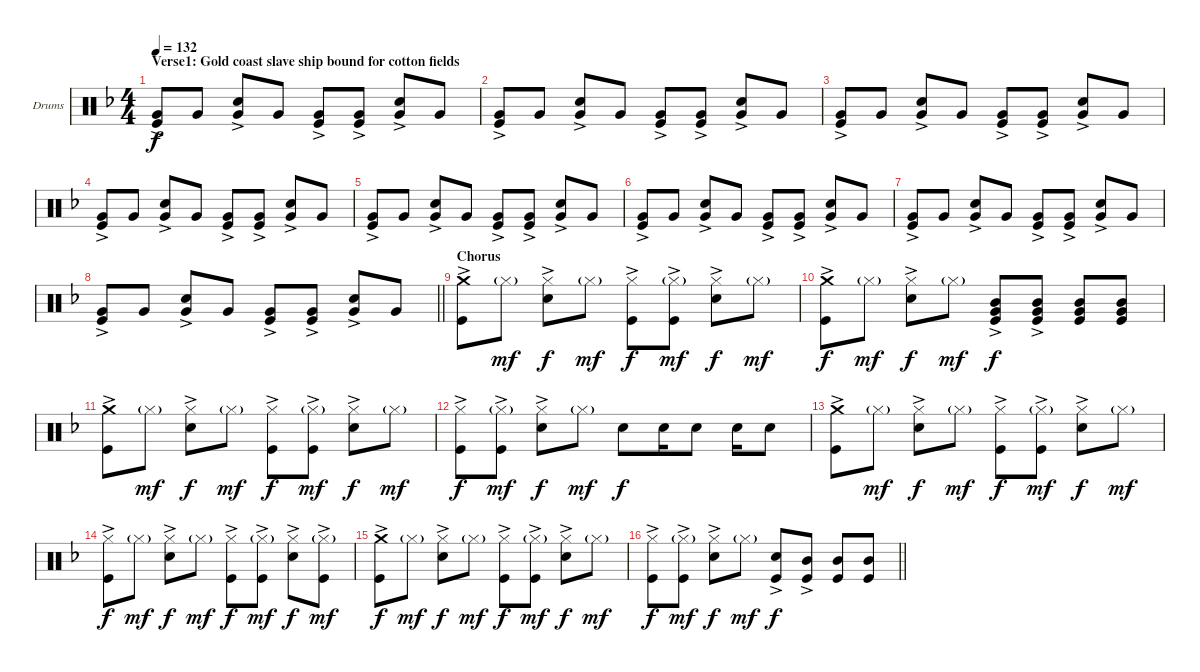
\bracketExtendMode groupsimilarinstruments
\firstSystemTrackNameOrientation horizontal
\otherSystemsTrackNameOrientation horizontal
\track ("Drumkit" "Drums") {instrument percussion}
\staff {score}
\articulation defaults
\ts (4 4)
\section ("" "Verse1: Gold coast slave ship bound for cotton fields")
\tempo 132
\clef neutral
\ks f
("Very Low Tom (hit)"{ac} "Kick (hit)"{ac}).8{dy f} "Very Low Tom (hit)".8 ("Snare (hit) 2"{ac} "Very Low Tom (hit)"{ac}).8 "Very Low Tom (hit)".8 ("Very Low Tom (hit)"{ac} "Kick (hit)"{ac}).8 ("Very Low Tom (hit)" "Kick (hit)"{ac}).8 ("Snare (hit) 2"{ac} "Very Low Tom (hit)"{ac}).8 "Very Low Tom (hit)".8 |
("Very Low Tom (hit)"{ac} "Kick (hit)"{ac}).8 "Very Low Tom (hit)".8 ("Snare (hit) 2"{ac} "Very Low Tom (hit)"{ac}).8 "Very Low Tom (hit)".8 ("Very Low Tom (hit)"{ac} "Kick (hit)"{ac}).8 ("Very Low Tom (hit)" "Kick (hit)"{ac}).8 ("Snare (hit) 2"{ac} "Very Low Tom (hit)"{ac}).8 "Very Low Tom (hit)".8 |
("Very Low Tom (hit)"{ac} "Kick (hit)"{ac}).8 "Very Low Tom (hit)".8 ("Snare (hit) 2"{ac} "Very Low Tom (hit)"{ac}).8 "Very Low Tom (hit)".8 ("Very Low Tom (hit)"{ac} "Kick (hit)"{ac}).8 ("Very Low Tom (hit)" "Kick (hit)"{ac}).8 ("Snare (hit) 2"{ac} "Very Low Tom (hit)"{ac}).8 "Very Low Tom (hit)".8 |
("Very Low Tom (hit)"{ac} "Kick (hit)"{ac}).8 "Very Low Tom (hit)".8 ("Snare (hit) 2"{ac} "Very Low Tom (hit)"{ac}).8 "Very Low Tom (hit)".8 ("Very Low Tom (hit)"{ac} "Kick (hit)"{ac}).8 ("Very Low Tom (hit)" "Kick (hit)"{ac}).8 ("Snare (hit) 2"{ac} "Very Low Tom (hit)"{ac}).8 "Very Low Tom (hit)".8 |
("Very Low Tom (hit)"{ac} "Kick (hit)"{ac}).8 "Very Low Tom (hit)".8 ("Snare (hit) 2"{ac} "Very Low Tom (hit)"{ac}).8 "Very Low Tom (hit)".8 ("Very Low Tom (hit)"{ac} "Kick (hit)"{ac}).8 ("Very Low Tom (hit)" "Kick (hit)"{ac}).8 ("Snare (hit) 2"{ac} "Very Low Tom (hit)"{ac}).8 "Very Low Tom (hit)".8 |
("Very Low Tom (hit)"{ac} "Kick (hit)"{ac}).8 "Very Low Tom (hit)".8 ("Snare (hit) 2"{ac} "Very Low Tom (hit)"{ac}).8 "Very Low Tom (hit)".8 ("Very Low Tom (hit)"{ac} "Kick (hit)"{ac}).8 ("Very Low Tom (hit)" "Kick (hit)"{ac}).8 ("Snare (hit) 2"{ac} "Very Low Tom (hit)"{ac}).8 "Very Low Tom (hit)".8 |
("Very Low Tom (hit)"{ac} "Kick (hit)"{ac}).8 "Very Low Tom (hit)".8 ("Snare (hit) 2"{ac} "Very Low Tom (hit)"{ac}).8 "Very Low Tom (hit)".8 ("Very Low Tom (hit)"{ac} "Kick (hit)"{ac}).8 ("Very Low Tom (hit)" "Kick (hit)"{ac}).8 ("Snare (hit) 2"{ac} "Very Low Tom (hit)"{ac}).8 "Very Low Tom (hit)".8 |
\barLineRight lightlight
("Very Low Tom (hit)"{ac} "Kick (hit)"{ac}).8 "Very Low Tom (hit)".8 ("Snare (hit) 2"{ac} "Very Low Tom (hit)"{ac}).8 "Very Low Tom (hit)".8 ("Very Low Tom (hit)"{ac} "Kick (hit)"{ac}).8 ("Very Low Tom (hit)" "Kick (hit)"{ac}).8 ("Snare (hit) 2"{ac} "Very Low Tom (hit)"{ac}).8 "Very Low Tom (hit)".8 |
\section ("" "Chorus")
("Crash medium (hit)" "Kick (hit)"{ac}).8 "Hi-Hat (closed)"{g}.8{dy mf} ("Hi-Hat (closed)" "Snare (hit) 2"{ac}).8{dy f} "Hi-Hat (closed)"{g}.8{dy mf} ("Hi-Hat (closed)" "Kick (hit)"{ac}).8{dy f} ("Hi-Hat (closed)"{g} "Kick (hit)"{ac}).8{dy mf} ("Hi-Hat (closed)" "Snare (hit) 2"{ac}).8{dy f} "Hi-Hat (closed)"{g}.8{dy mf} |
("Crash medium (hit)" "Kick (hit)"{ac}).8{dy f} "Hi-Hat (closed)"{g}.8{dy mf} ("Hi-Hat (closed)" "Snare (hit) 2"{ac}).8{dy f} "Hi-Hat (closed)"{g}.8{dy mf} ("Mid Tom (hit)" "Very Low Tom (hit)" "Kick (hit)"{ac}).8{dy f} ("Mid Tom (hit)" "Very Low Tom (hit)" "Kick (hit)"{ac}).8 ("Mid Tom (hit)" "Very Low Tom (hit)" "Kick (hit)").8 ("Mid Tom (hit)" "Very Low Tom (hit)" "Kick (hit)").8 |
("Crash medium (hit)" "Kick (hit)"{ac}).8 "Hi-Hat (closed)"{g}.8{dy mf} ("Hi-Hat (closed)" "Snare (hit) 2"{ac}).8{dy f} "Hi-Hat (closed)"{g}.8{dy mf} ("Hi-Hat (closed)" "Kick (hit)"{ac}).8{dy f} ("Hi-Hat (closed)"{g} "Kick (hit)"{ac}).8{dy mf} ("Hi-Hat (closed)" "Snare (hit) 2"{ac}).8{dy f} "Hi-Hat (closed)"{g}.8{dy mf} |
("Hi-Hat (closed)" "Kick (hit)"{ac}).8{dy f} ("Hi-Hat (closed)"{g} "Kick (hit)"{ac}).8{dy mf} ("Hi-Hat (closed)" "Snare (hit) 2"{ac}).8{dy f} "Hi-Hat (closed)"{g}.8{dy mf} "Snare (hit) 2".8{dy f} "Snare (hit) 2".16 "Snare (hit) 2".8 "Snare (hit) 2".16 "Snare (hit) 2".8 |
("Crash medium (hit)" "Kick (hit)"{ac}).8 "Hi-Hat (closed)"{g}.8{dy mf} ("Hi-Hat (closed)" "Snare (hit) 2"{ac}).8{dy f} "Hi-Hat (closed)"{g}.8{dy mf} ("Hi-Hat (closed)" "Kick (hit)"{ac}).8{dy f} ("Hi-Hat (closed)"{g} "Kick (hit)"{ac}).8{dy mf} ("Hi-Hat (closed)" "Snare (hit) 2"{ac}).8{dy f} "Hi-Hat (closed)"{g}.8{dy mf} |
("Hi-Hat (closed)" "Kick (hit)"{ac}).8{dy f} "Hi-Hat (closed)"{g}.8{dy mf} ("Hi-Hat (closed)" "Snare (hit) 2"{ac}).8{dy f} "Hi-Hat (closed)"{g}.8{dy mf} ("Hi-Hat (closed)" "Kick (hit)"{ac}).8{dy f} ("Hi-Hat (closed)"{g} "Kick (hit)"{ac}).8{dy mf} ("Hi-Hat (closed)" "Snare (hit) 2"{ac}).8{dy f} ("Hi-Hat (closed)"{g} "Kick (hit)"{ac}).8{dy mf} |
("Crash medium (hit)" "Kick (hit)"{ac}).8{dy f} "Hi-Hat (closed)"{g}.8{dy mf} ("Hi-Hat (closed)" "Snare (hit) 2"{ac}).8{dy f} "Hi-Hat (closed)"{g}.8{dy mf} ("Hi-Hat (closed)" "Kick (hit)"{ac}).8{dy f} ("Hi-Hat (closed)"{g} "Kick (hit)"{ac}).8{dy mf} ("Hi-Hat (closed)" "Snare (hit) 2"{ac}).8{dy f} "Hi-Hat (closed)"{g}.8{dy mf} |
\barLineRight lightlight
("Hi-Hat (closed)" "Kick (hit)"{ac}).8{dy f} ("Hi-Hat (closed)"{g} "Kick (hit)"{ac}).8{dy mf} ("Hi-Hat (closed)" "Snare (hit) 2"{ac}).8{dy f} "Hi-Hat (closed)"{g}.8{dy mf} ("Snare (hit) 2"{ac} "Kick (hit)"{ac}).8{dy f} ("Mid Tom (hit)" "Kick (hit)"{ac}).8 ("Mid Tom (hit)" "Kick (hit)").8 ("Mid Tom (hit)" "Kick (hit)").8
